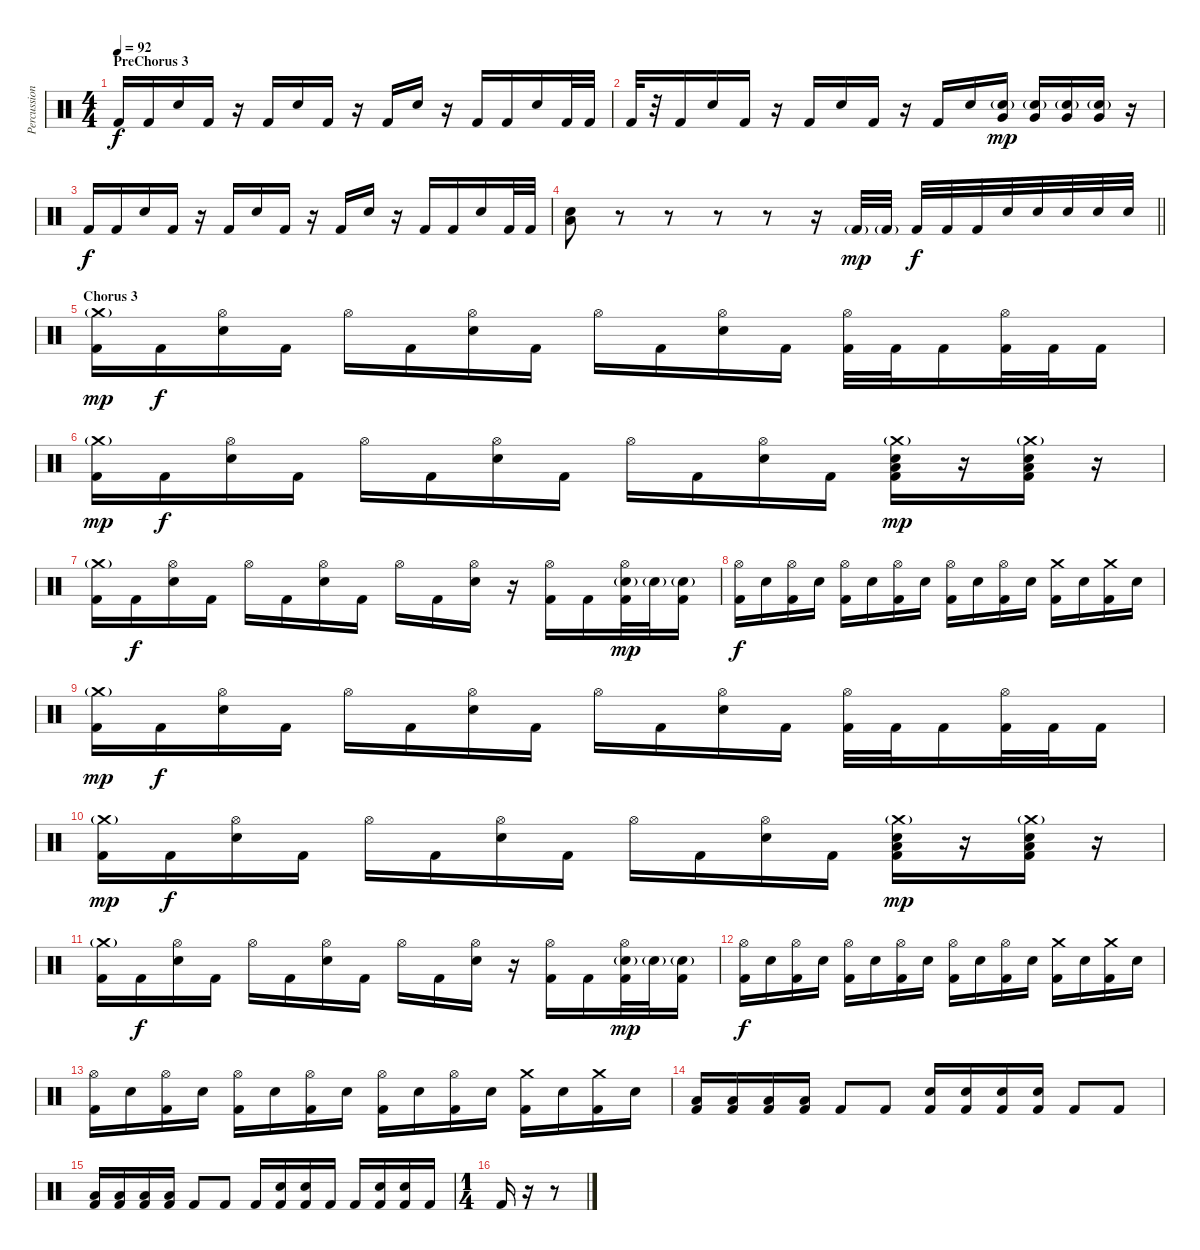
\track ("Percussion" "Percussion") {instrument percussion}
\staff {score}
\articulation defaults
\ts (4 4)
\section ("" "PreChorus 3")
\tempo 92
\clef neutral
\ks c "Kick (hit) 2".16{dy f} "Kick (hit) 2".16 "Electric Snare (hit)".16 "Kick (hit) 2".16
r.16 "Kick (hit) 2".16 "Electric Snare (hit)".16 "Kick (hit) 2".16 r.16 "Kick (hit) 2".16 "Electric Snare (hit)".16 r.16 "Kick (hit) 2".16 "Kick (hit) 2".16 "Electric Snare (hit)".16 "Kick (hit) 2".32 "Kick (hit) 2".32 |
"Kick (hit) 2".32 r.32 "Kick (hit) 2".16 "Electric Snare (hit)".16 "Kick (hit) 2".16 r.16 "Kick (hit) 2".16 "Electric Snare (hit)".16 "Kick (hit) 2".16 r.16 "Kick (hit) 2".16 "Electric Snare (hit)".16 ("Very Low Tom (hit)" "Electric Snare (hit)"{g}).16{dy mp} ("Very Low Tom (hit)" "Electric Snare (hit)"{g}).16 ("Very Low Tom (hit)" "Electric Snare (hit)"{g}).16 ("Very Low Tom (hit)" "Electric Snare (hit)"{g}).16 r.16 |
"Kick (hit) 2".16{dy f} "Kick (hit) 2".16 "Electric Snare (hit)".16 "Kick (hit) 2".16 r.16 "Kick (hit) 2".16 "Electric Snare (hit)".16 "Kick (hit) 2".16 r.16 "Kick (hit) 2".16 "Electric Snare (hit)".16 r.16 "Kick (hit) 2".16 "Kick (hit) 2".16 "Electric Snare (hit)".16 "Kick (hit) 2".32 "Kick (hit) 2".32 |
\barLineRight lightlight
("Low Floor Tom (hit)" "Electric Snare (hit)").8 r.8 r.8 r.8 r.8 r.16 "Kick (hit) 2"{g}.32{dy mp} "Kick (hit) 2"{g}.32 "Kick (hit) 2".32{dy f} "Kick (hit) 2".32 "Kick (hit) 2".32 "Electric Snare (hit)".32 "Electric Snare (hit)".32 "Electric Snare (hit)".32 "Electric Snare (hit)".32 "Electric Snare (hit)".32 |
\section ("" "Chorus 3")
("Crash medium (hit)"{g} "Kick (hit) 2").16{dy mp} "Kick (hit) 2".16{dy f} ("Hi-Hat (open)" "Electric Snare (hit)").16 "Kick (hit) 2".16 "Hi-Hat (open)".16 "Kick (hit) 2".16 ("Hi-Hat (open)" "Electric Snare (hit)").16 "Kick (hit) 2".16 "Hi-Hat (open)".16 "Kick (hit) 2".16 ("Hi-Hat (open)" "Electric Snare (hit)").16 "Kick (hit) 2".16 ("Hi-Hat (open)" "Kick (hit) 2").32 "Kick (hit) 2".32 "Kick (hit) 2".16 ("Hi-Hat (open)" "Kick (hit) 2").32 "Kick (hit) 2".32 "Kick (hit) 2".16 |
("Crash medium (hit)"{g} "Kick (hit) 2").16{dy mp} "Kick (hit) 2".16{dy f} ("Hi-Hat (open)" "Electric Snare (hit)").16 "Kick (hit) 2".16 "Hi-Hat (open)".16 "Kick (hit) 2".16 ("Hi-Hat (open)" "Electric Snare (hit)").16 "Kick (hit) 2".16 "Hi-Hat (open)".16 "Kick (hit) 2".16 ("Hi-Hat (open)" "Electric Snare (hit)").16 "Kick (hit) 2".16 ("Crash medium (hit)"{g} "Low Floor Tom (hit)" "Electric Snare (hit)" "Kick (hit) 2").16{dy mp} r.16 ("Crash medium (hit)"{g} "Low Floor Tom (hit)" "Electric Snare (hit)" "Kick (hit) 2").16 r.16 |
("Crash medium (hit)"{g} "Kick (hit) 2").16 "Kick (hit) 2".16{dy f} ("Hi-Hat (open)" "Electric Snare (hit)").16 "Kick (hit) 2".16 "Hi-Hat (open)".16 "Kick (hit) 2".16 ("Hi-Hat (open)" "Electric Snare (hit)").16 "Kick (hit) 2".16 "Hi-Hat (open)".16 "Kick (hit) 2".16 ("Hi-Hat (open)" "Electric Snare (hit)").16 r.16 ("Hi-Hat (open)" "Kick (hit) 2").16 "Kick (hit) 2".16 ("Hi-Hat (open)" "Electric Snare (hit)"{g} "Kick (hit) 2").32{dy mp} "Electric Snare (hit)"{g}.32 ("Electric Snare (hit)"{g} "Kick (hit) 2").16 |
("Hi-Hat (open)" "Kick (hit) 2").16{dy f} "Electric Snare (hit)".16 ("Hi-Hat (open)" "Kick (hit) 2").16 "Electric Snare (hit)".16 ("Hi-Hat (open)" "Kick (hit) 2").16 "Electric Snare (hit)".16 ("Hi-Hat (open)" "Kick (hit) 2").16 "Electric Snare (hit)".16 ("Hi-Hat (open)" "Kick (hit) 2").16 "Electric Snare (hit)".16 ("Hi-Hat (open)" "Kick (hit) 2").16 "Electric Snare (hit)".16 ("Crash medium (hit)" "Kick (hit) 2").16 "Electric Snare (hit)".16 ("Crash medium (hit)" "Kick (hit) 2").16 "Electric Snare (hit)".16 |
("Crash medium (hit)"{g} "Kick (hit) 2").16{dy mp} "Kick (hit) 2".16{dy f} ("Hi-Hat (open)" "Electric Snare (hit)").16 "Kick (hit) 2".16 "Hi-Hat (open)".16 "Kick (hit) 2".16 ("Hi-Hat (open)" "Electric Snare (hit)").16 "Kick (hit) 2".16 "Hi-Hat (open)".16 "Kick (hit) 2".16 ("Hi-Hat (open)" "Electric Snare (hit)").16 "Kick (hit) 2".16 ("Hi-Hat (open)" "Kick (hit) 2").32 "Kick (hit) 2".32 "Kick (hit) 2".16 ("Hi-Hat (open)" "Kick (hit) 2").32 "Kick (hit) 2".32 "Kick (hit) 2".16 |
("Crash medium (hit)"{g} "Kick (hit) 2").16{dy mp} "Kick (hit) 2".16{dy f} ("Hi-Hat (open)" "Electric Snare (hit)").16 "Kick (hit) 2".16 "Hi-Hat (open)".16 "Kick (hit) 2".16 ("Hi-Hat (open)" "Electric Snare (hit)").16 "Kick (hit) 2".16 "Hi-Hat (open)".16 "Kick (hit) 2".16 ("Hi-Hat (open)" "Electric Snare (hit)").16 "Kick (hit) 2".16 ("Crash medium (hit)"{g} "Low Floor Tom (hit)" "Electric Snare (hit)" "Kick (hit) 2").16{dy mp} r.16 ("Crash medium (hit)"{g} "Low Floor Tom (hit)" "Electric Snare (hit)" "Kick (hit) 2").16 r.16 |
("Crash medium (hit)"{g} "Kick (hit) 2").16 "Kick (hit) 2".16{dy f} ("Hi-Hat (open)" "Electric Snare (hit)").16 "Kick (hit) 2".16 "Hi-Hat (open)".16 "Kick (hit) 2".16 ("Hi-Hat (open)" "Electric Snare (hit)").16 "Kick (hit) 2".16 "Hi-Hat (open)".16 "Kick (hit) 2".16 ("Hi-Hat (open)" "Electric Snare (hit)").16 r.16 ("Hi-Hat (open)" "Kick (hit) 2").16 "Kick (hit) 2".16 ("Hi-Hat (open)" "Electric Snare (hit)"{g} "Kick (hit) 2").32{dy mp} "Electric Snare (hit)"{g}.32 ("Electric Snare (hit)"{g} "Kick (hit) 2").16 |
("Hi-Hat (open)" "Kick (hit) 2").16{dy f} "Electric Snare (hit)".16 ("Hi-Hat (open)" "Kick (hit) 2").16 "Electric Snare (hit)".16 ("Hi-Hat (open)" "Kick (hit) 2").16 "Electric Snare (hit)".16 ("Hi-Hat (open)" "Kick (hit) 2").16 "Electric Snare (hit)".16 ("Hi-Hat (open)" "Kick (hit) 2").16 "Electric Snare (hit)".16 ("Hi-Hat (open)" "Kick (hit) 2").16 "Electric Snare (hit)".16 ("Crash medium (hit)" "Kick (hit) 2").16 "Electric Snare (hit)".16 ("Crash medium (hit)" "Kick (hit) 2").16 "Electric Snare (hit)".16 |
("Hi-Hat (open)" "Kick (hit) 2").16 "Electric Snare (hit)".16 ("Hi-Hat (open)" "Kick (hit) 2").16 "Electric Snare (hit)".16 ("Hi-Hat (open)" "Kick (hit) 2").16 "Electric Snare (hit)".16 ("Hi-Hat (open)" "Kick (hit) 2").16 "Electric Snare (hit)".16 ("Hi-Hat (open)" "Kick (hit) 2").16 "Electric Snare (hit)".16 ("Hi-Hat (open)" "Kick (hit) 2").16 "Electric Snare (hit)".16 ("Crash medium (hit)" "Kick (hit) 2").16 "Electric Snare (hit)".16 ("Crash medium (hit)" "Kick (hit) 2").16 "Electric Snare (hit)".16 |
("Low Tom (hit)" "Kick (hit) 2").16 ("Low Tom (hit)" "Kick (hit) 2").16 ("Low Tom (hit)" "Kick (hit) 2").16 ("Low Tom (hit)" "Kick (hit) 2").16 "Kick (hit) 2".8 "Kick (hit) 2".8 ("Snare (hit) 2" "Kick (hit) 2").16 ("Snare (hit) 2" "Kick (hit) 2").16 ("Snare (hit) 2" "Kick (hit) 2").16 ("Snare (hit) 2" "Kick (hit) 2").16 "Kick (hit) 2".8 "Kick (hit) 2".8 |
("Low Floor Tom (hit)" "Kick (hit) 2").16 ("Low Floor Tom (hit)" "Kick (hit) 2").16 ("Low Floor Tom (hit)" "Kick (hit) 2").16 ("Low Floor Tom (hit)" "Kick (hit) 2").16 "Kick (hit) 2".8 "Kick (hit) 2".8 "Kick (hit) 2".16 ("Electric Snare (hit)" "Kick (hit) 2").16 ("Electric Snare (hit)" "Kick (hit) 2").16 "Kick (hit) 2".16 "Kick (hit) 2".16 ("Electric Snare (hit)" "Kick (hit) 2").16 ("Electric Snare (hit)" "Kick (hit) 2").16 "Kick (hit) 2".16 |
\ts (1 4)
"Kick (hit) 2".16 r.16 r.8
